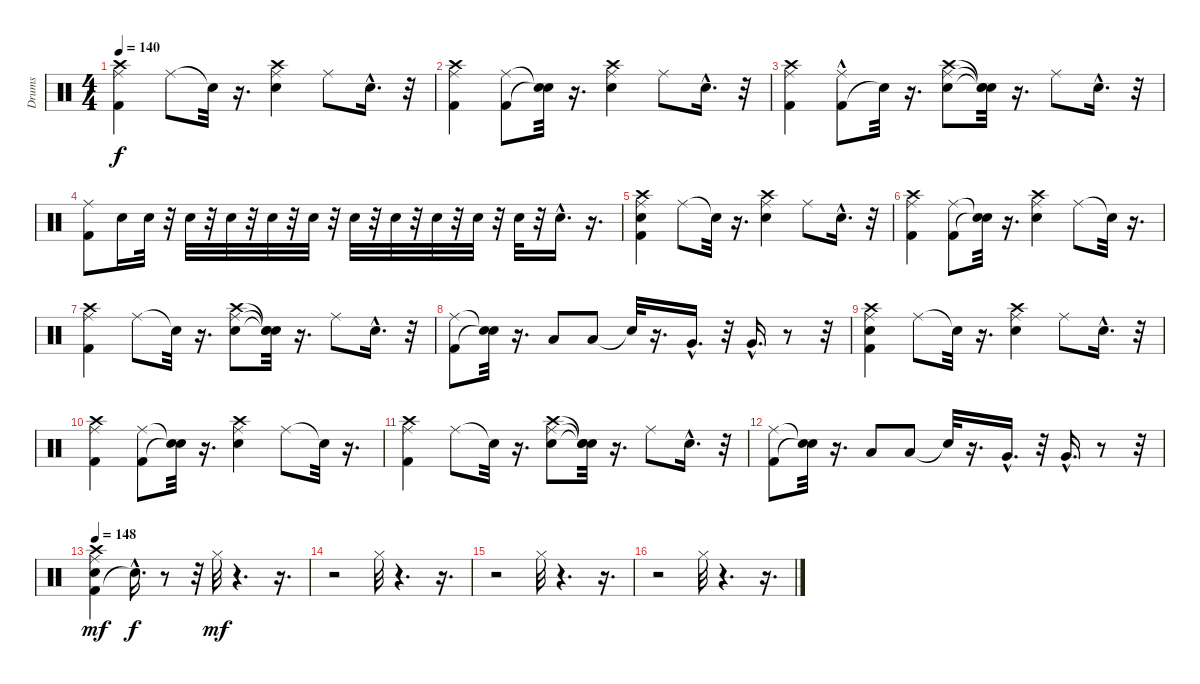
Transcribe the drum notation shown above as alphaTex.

\track ("Drums" "Drums") {instrument percussion}
\staff {score}
\articulation defaults
\ts (4 4)
\tempo 140
\clef neutral
\ks c
("Crash high (hit)" "Ride (middle)" "Kick (hit) 2").4{dy f} "Ride (middle)".8 "Snare (hit)"{t}.32 r.16{d} ("Crash high (hit)" "Ride (middle)" "Snare (hit) 2").4 "Ride (middle)".8 "Snare (hit) 2"{hac}.16{d} r.32 |
("Ride (middle)" "Kick (hit) 2" "Crash high (hit)").4 ("Ride (middle)" "Kick (hit) 2").8 ("Snare (hit)"{t} "Snare (hit)"{t}).32 r.16{d} ("Snare (hit) 2" "Crash high (hit)" "Ride (middle)").4 "Ride (middle)".8 "Snare (hit) 2"{hac}.16{d} r.32 |
("Kick (hit) 2" "Ride (middle)" "Crash high (hit)").4 ("Kick (hit) 2"{hac} "Ride (middle)").8 "Snare (hit)"{t}.32 r.16{d} ("Ride (middle)" "Crash high (hit)" "Snare (hit) 2").8 ("Snare (hit)"{t} "Snare (hit)"{t} "Snare (hit)"{t}).32 r.16{d} "Ride (middle)".8 "Snare (hit) 2"{hac}.16{d} r.32 |
("Kick (hit) 2" "Ride (middle)").8 "Electric Snare (hit)".16 "Electric Snare (hit)".32 r.32 "Electric Snare (hit)".32 r.32 "Electric Snare (hit)".32 r.32 "Electric Snare (hit)".32 r.32 "Electric Snare (hit)".32 r.32 "Electric Snare (hit)".32 r.32 "Electric Snare (hit)".32 r.32 "Electric Snare (hit)".32 r.32 "Electric Snare (hit)".32 r.32 "Electric Snare (hit)".32 r.32 "Electric Snare (hit)"{hac}.16{d} r.16{d} |
("Kick (hit) 2" "Ride (middle)" "Crash high (hit)" "Snare (hit) 2").4 "Ride (middle)".8 "Snare (hit)"{t}.32 r.16{d} ("Snare (hit) 2" "Ride (middle)" "Crash high (hit)").4 "Ride (middle)".8 "Snare (hit) 2"{hac}.16{d} r.32 |
("Kick (hit) 2" "Ride (middle)" "Crash high (hit)").4 ("Kick (hit) 2" "Ride (middle)").8 ("Snare (hit)"{t} "Snare (hit)"{t}).32 r.16{d} ("Snare (hit) 2" "Crash high (hit)" "Ride (middle)").4 "Ride (middle)".8 "Snare (hit)"{t}.32 r.16{d} |
("Crash high (hit)" "Kick (hit) 2" "Ride (middle)").4 "Ride (middle)".8 "Snare (hit)"{t}.32 r.16{d} ("Crash high (hit)" "Ride (middle)" "Snare (hit) 2").8 ("Snare (hit)"{t} "Snare (hit)"{t} "Snare (hit)"{t}).32 r.16{d} "Ride (middle)".8 "Snare (hit) 2"{hac}.16{d} r.32 |
("Ride (middle)" "Kick (hit) 2").8 ("Snare (hit)"{t} "Snare (hit)"{t}).32 r.16{d} "Low Tom (hit)".8 "Low Tom (hit)".8 "Snare (hit)"{t}.32 r.16{d} "Very Low Tom (hit)"{hac}.16{d} r.32 "Very Low Tom (hit)"{hac}.16{d} r.8 r.32 |
("Kick (hit) 2" "Crash high (hit)" "Snare (hit) 2" "Ride (middle)").4 "Ride (middle)".8 "Snare (hit)"{t}.32 r.16{d} ("Snare (hit) 2" "Crash high (hit)" "Ride (middle)").4 "Ride (middle)".8 "Snare (hit) 2"{hac}.16{d} r.32 |
("Crash high (hit)" "Kick (hit) 2" "Ride (middle)").4 ("Kick (hit) 2" "Ride (middle)").8 ("Snare (hit)"{t} "Snare (hit)"{t}).32 r.16{d} ("Snare (hit) 2" "Crash high (hit)" "Ride (middle)").4 "Ride (middle)".8 "Snare (hit)"{t}.32 r.16{d} |
("Ride (middle)" "Crash high (hit)" "Kick (hit) 2").4 "Ride (middle)".8 "Snare (hit)"{t}.32 r.16{d} ("Ride (middle)" "Snare (hit) 2" "Crash high (hit)").8 ("Snare (hit)"{t} "Snare (hit)"{t} "Snare (hit)"{t}).32 r.16{d} "Ride (middle)".8 "Snare (hit) 2"{hac}.16{d} r.32 |
("Kick (hit) 2" "Ride (middle)").8 ("Snare (hit)"{t} "Snare (hit)"{t}).32 r.16{d} "Low Tom (hit)".8 "Low Tom (hit)".8 "Snare (hit)"{t}.32 r.16{d} "Very Low Tom (hit)"{hac}.16{d} r.32 "Very Low Tom (hit)"{hac}.16{d} r.8 r.32 |
\tempo 148
("Kick (hit) 2" "Ride (middle)" "Crash high (hit)" "Snare (hit) 2").4{dy mf} "Snare (hit)"{hac t}.16{d dy f} r.8 r.32 "Hi-Hat (closed)".32{dy mf} r.4{d} r.16{d} |
r.2 "Hi-Hat (closed)".32 r.4{d} r.16{d} |
r.2 "Hi-Hat (closed)".32 r.4{d} r.16{d} |
r.2 "Hi-Hat (closed)".32 r.4{d} r.16{d}
